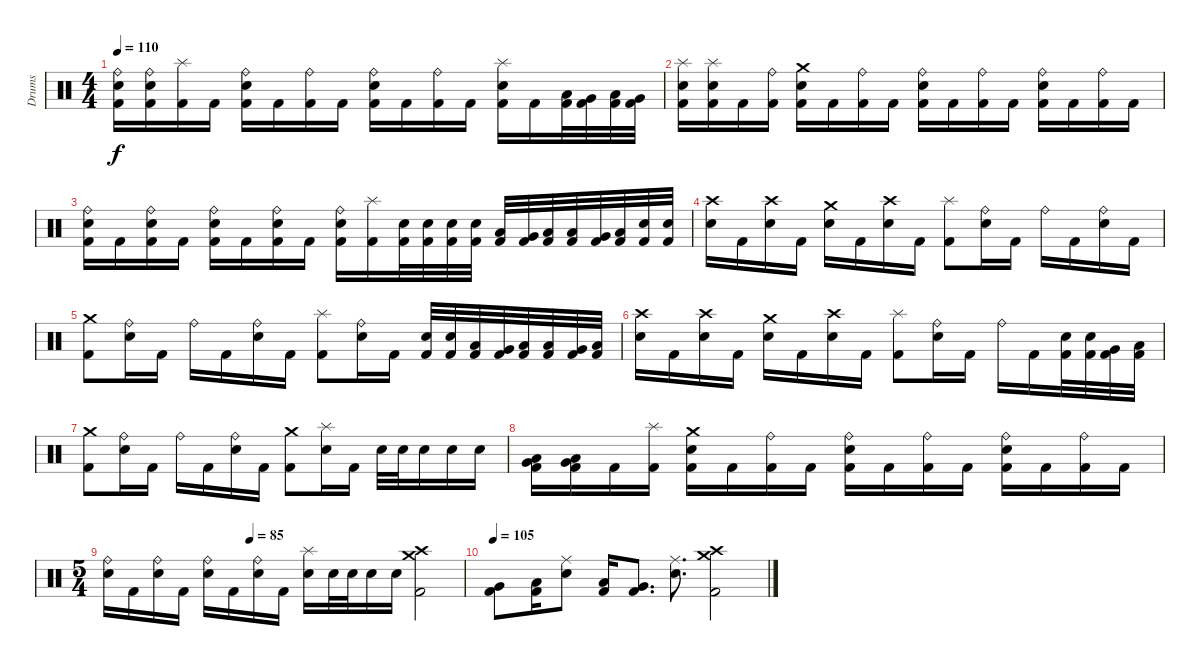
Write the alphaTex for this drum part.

\track ("Drums" "Drums") {instrument percussion}
\staff {score}
\articulation defaults
\ts (4 4)
\tempo 110
\clef neutral
\ks c
("Ride (bell)" "Electric Snare (hit)" "Kick (hit) 2").16{dy f} ("Ride (bell)" "Electric Snare (hit)" "Kick (hit) 2").16 ("Splash (hit)" "Kick (hit) 2").16 "Kick (hit) 2".16 ("Ride (bell)" "Electric Snare (hit)" "Kick (hit) 2").16 "Kick (hit) 2".16 ("Ride (bell)" "Kick (hit) 2").16 "Kick (hit) 2".16 ("Ride (bell)" "Electric Snare (hit)" "Kick (hit) 2").16 "Kick (hit) 2".16 ("Ride (bell)" "Kick (hit) 2").16 "Kick (hit) 2".16 ("Splash (hit)" "Electric Snare (hit)" "Kick (hit) 2").16 "Kick (hit) 2".16 ("Low Floor Tom (hit)" "Kick (hit) 2").32 ("Very Low Tom (hit)" "Kick (hit) 2").32 ("Low Tom (hit)" "Kick (hit) 2").32 ("Very Low Tom (hit)" "Kick (hit) 2").32 |
("Splash (hit)" "Electric Snare (hit)" "Kick (hit) 2").16 ("Splash (hit)" "Electric Snare (hit)" "Kick (hit) 2").16 "Kick (hit) 2".16 ("Ride (bell)" "Kick (hit) 2").16 ("Crash medium (hit)" "Electric Snare (hit)" "Kick (hit) 2").16 "Kick (hit) 2".16 ("Ride (bell)" "Kick (hit) 2").16 "Kick (hit) 2".16 ("Ride (bell)" "Electric Snare (hit)" "Kick (hit) 2").16 "Kick (hit) 2".16 ("Ride (bell)" "Kick (hit) 2").16 "Kick (hit) 2".16 ("Ride (bell)" "Electric Snare (hit)" "Kick (hit) 2").16 "Kick (hit) 2".16 ("Ride (bell)" "Kick (hit) 2").16 "Kick (hit) 2".16 |
("Ride (bell)" "Electric Snare (hit)" "Kick (hit) 2").16 "Kick (hit) 2".16 ("Ride (bell)" "Electric Snare (hit)" "Kick (hit) 2").16 "Kick (hit) 2".16 ("Ride (bell)" "Electric Snare (hit)" "Kick (hit) 2").16 "Kick (hit) 2".16 ("Ride (bell)" "Electric Snare (hit)" "Kick (hit) 2").16 "Kick (hit) 2".16 ("Ride (bell)" "Electric Snare (hit)" "Kick (hit) 2").16 ("Splash (hit)" "Kick (hit) 2").16 ("Electric Snare (hit)" "Kick (hit) 2").32 ("Electric Snare (hit)" "Kick (hit) 2").32 ("Electric Snare (hit)" "Kick (hit) 2").32 ("Electric Snare (hit)" "Kick (hit) 2").32 ("Low Tom (hit)" "Kick (hit) 2").32 ("Very Low Tom (hit)" "Kick (hit) 2").32 ("Low Floor Tom (hit)" "Kick (hit) 2").32 ("Low Tom (hit)" "Kick (hit) 2").32 ("Very Low Tom (hit)" "Kick (hit) 2").32 ("Low Floor Tom (hit)" "Kick (hit) 2").32 ("Electric Snare (hit)" "Kick (hit) 2").32 ("Electric Snare (hit)" "Kick (hit) 2").32 |
("Crash high (hit)" "Electric Snare (hit)").16 "Kick (hit) 2".16 ("Crash high (hit)" "Electric Snare (hit)").16 "Kick (hit) 2".16 ("Crash medium (hit)" "Electric Snare (hit)").16 "Kick (hit) 2".16 ("Crash high (hit)" "Electric Snare (hit)").16 "Kick (hit) 2".16 ("Splash (hit)" "Kick (hit) 2").8 ("Ride (bell)" "Electric Snare (hit)").16 "Kick (hit) 2".16 "Ride (bell)".16 "Kick (hit) 2".16 ("Ride (bell)" "Electric Snare (hit)").16 "Kick (hit) 2".16 |
("Crash medium (hit)" "Kick (hit) 2").8 ("Ride (bell)" "Electric Snare (hit)").16 "Kick (hit) 2".16 "Ride (bell)".16 "Kick (hit) 2".16 ("Ride (bell)" "Electric Snare (hit)").16 "Kick (hit) 2".16 ("Splash (hit)" "Kick (hit) 2").8 ("Ride (bell)" "Electric Snare (hit)").16 "Kick (hit) 2".16 ("Electric Snare (hit)" "Kick (hit) 2").32 ("Electric Snare (hit)" "Kick (hit) 2").32 ("Low Tom (hit)" "Kick (hit) 2").32 ("Very Low Tom (hit)" "Kick (hit) 2").32 ("Low Floor Tom (hit)" "Kick (hit) 2").32 ("Low Tom (hit)" "Kick (hit) 2").32 ("Very Low Tom (hit)" "Kick (hit) 2").32 ("Low Floor Tom (hit)" "Kick (hit) 2").32 |
("Crash high (hit)" "Electric Snare (hit)").16 "Kick (hit) 2".16 ("Crash high (hit)" "Electric Snare (hit)").16 "Kick (hit) 2".16 ("Crash medium (hit)" "Electric Snare (hit)").16 "Kick (hit) 2".16 ("Crash high (hit)" "Electric Snare (hit)").16 "Kick (hit) 2".16 ("Splash (hit)" "Kick (hit) 2").8 ("Ride (bell)" "Electric Snare (hit)").16 "Kick (hit) 2".16 "Ride (bell)".16 "Kick (hit) 2".16 ("Electric Snare (hit)" "Kick (hit) 2").32 ("Electric Snare (hit)" "Kick (hit) 2").32 ("Very Low Tom (hit)" "Kick (hit) 2").32 ("Low Floor Tom (hit)" "Kick (hit) 2").32 |
("Crash medium (hit)" "Kick (hit) 2").8 ("Ride (bell)" "Electric Snare (hit)").16 "Kick (hit) 2".16 "Ride (bell)".16 "Kick (hit) 2".16 ("Ride (bell)" "Electric Snare (hit)").16 "Kick (hit) 2".16 ("Crash medium (hit)" "Kick (hit) 2").8 ("Splash (hit)" "Electric Snare (hit)").16 "Kick (hit) 2".16 "Electric Snare (hit)".32 "Electric Snare (hit)".32 "Electric Snare (hit)".16 "Electric Snare (hit)".16 "Electric Snare (hit)".16 |
("Low Floor Tom (hit)" "Very Low Tom (hit)" "Kick (hit) 2").16 ("Low Floor Tom (hit)" "Very Low Tom (hit)" "Kick (hit) 2").16 "Kick (hit) 2".16 ("Splash (hit)" "Kick (hit) 2").16 ("Crash medium (hit)" "Electric Snare (hit)" "Kick (hit) 2").16 "Kick (hit) 2".16 ("Ride (bell)" "Kick (hit) 2").16 "Kick (hit) 2".16 ("Ride (bell)" "Electric Snare (hit)" "Kick (hit) 2").16 "Kick (hit) 2".16 ("Ride (bell)" "Kick (hit) 2").16 "Kick (hit) 2".16 ("Ride (bell)" "Electric Snare (hit)" "Kick (hit) 2").16 "Kick (hit) 2".16 ("Ride (bell)" "Kick (hit) 2").16 "Kick (hit) 2".16 |
\ts (5 4)
\tempo (85 0.4)
("Ride (bell)" "Electric Snare (hit)").16 "Kick (hit) 2".16 ("Ride (bell)" "Electric Snare (hit)").16 "Kick (hit) 2".16 ("Ride (bell)" "Electric Snare (hit)").16 "Kick (hit) 2".16 ("Ride (bell)" "Electric Snare (hit)").16 "Kick (hit) 2".16 ("Splash (hit)" "Electric Snare (hit)").16 "Electric Snare (hit)".32 "Electric Snare (hit)".32 "Electric Snare (hit)".16 "Electric Snare (hit)".16 ("Crash medium (hit)" "Crash high (hit)" "Kick (hit) 2").2 |
\tempo 105
("Very Low Tom (hit)" "Kick (hit) 2").8{volume 14} ("Low Floor Tom (hit)" "Kick (hit) 2").16 ("Ride (middle)" "Electric Snare (hit)").8 ("Low Floor Tom (hit)" "Kick (hit) 2").16 ("Very Low Tom (hit)" "Kick (hit) 2").8{d} ("Ride (middle)" "Electric Snare (hit)").8{d} ("Crash medium (hit)" "Crash high (hit)" "Kick (hit) 2").2
